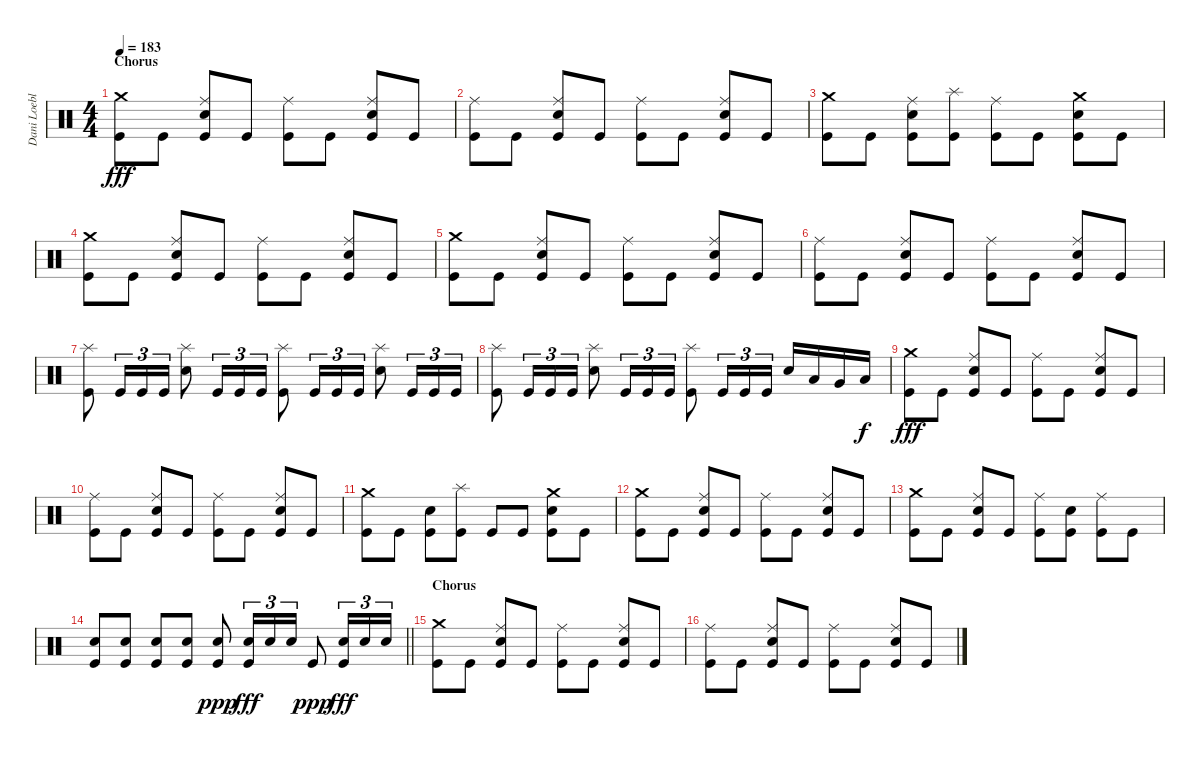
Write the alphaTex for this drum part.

\track ("Dani Loeble" "Dani Loebl") {instrument percussion}
\staff {score}
\articulation defaults
\ts (4 4)
\section ("" "Chorus")
\tempo 183
\clef neutral
\ks c
("Crash medium (hit)" "Kick (hit)").8{dy fff} "Kick (hit)".8 ("Ride (middle)" "Electric Snare (hit)" "Kick (hit)").8 "Kick (hit)".8 ("Ride (middle)" "Kick (hit)").8 "Kick (hit)".8 ("Ride (middle)" "Electric Snare (hit)" "Kick (hit)").8 "Kick (hit)".8 |
("Ride (middle)" "Kick (hit)").8 "Kick (hit)".8 ("Ride (middle)" "Electric Snare (hit)" "Kick (hit)").8 "Kick (hit)".8 ("Ride (middle)" "Kick (hit)").8 "Kick (hit)".8 ("Ride (middle)" "Electric Snare (hit)" "Kick (hit)").8 "Kick (hit)".8 |
("Crash medium (hit)" "Kick (hit)").8 "Kick (hit)".8 ("Ride (middle)" "Electric Snare (hit)" "Kick (hit)").8 ("Splash (hit)" "Kick (hit)").8 ("Ride (middle)" "Kick (hit)").8 "Kick (hit)".8 ("Crash medium (hit)" "Electric Snare (hit)" "Kick (hit)").8 "Kick (hit)".8 |
("Crash medium (hit)" "Kick (hit)").8 "Kick (hit)".8 ("Ride (middle)" "Electric Snare (hit)" "Kick (hit)").8 "Kick (hit)".8 ("Ride (middle)" "Kick (hit)").8 "Kick (hit)".8 ("Ride (middle)" "Electric Snare (hit)" "Kick (hit)").8 "Kick (hit)".8 |
("Crash medium (hit)" "Kick (hit)").8 "Kick (hit)".8 ("Ride (middle)" "Electric Snare (hit)" "Kick (hit)").8 "Kick (hit)".8 ("Ride (middle)" "Kick (hit)").8 "Kick (hit)".8 ("Ride (middle)" "Electric Snare (hit)" "Kick (hit)").8 "Kick (hit)".8 |
("Ride (middle)" "Kick (hit)").8 "Kick (hit)".8 ("Ride (middle)" "Electric Snare (hit)" "Kick (hit)").8 "Kick (hit)".8 ("Ride (middle)" "Kick (hit)").8 "Kick (hit)".8 ("Ride (middle)" "Electric Snare (hit)" "Kick (hit)").8 "Kick (hit)".8 |
("Splash (hit)" "Kick (hit)").8 "Kick (hit)".16{tu (3 2)} "Kick (hit)".16{tu (3 2)} "Kick (hit)".16{tu (3 2)} ("Splash (hit)" "Electric Snare (hit)").8 "Kick (hit)".16{tu (3 2)} "Kick (hit)".16{tu (3 2)} "Kick (hit)".16{tu (3 2)} ("Splash (hit)" "Kick (hit)").8 "Kick (hit)".16{tu (3 2)} "Kick (hit)".16{tu (3 2)} "Kick (hit)".16{tu (3 2)} ("Splash (hit)" "Electric Snare (hit)").8 "Kick (hit)".16{tu (3 2)} "Kick (hit)".16{tu (3 2)} "Kick (hit)".16{tu (3 2)} |
("Splash (hit)" "Kick (hit)").8 "Kick (hit)".16{tu (3 2)} "Kick (hit)".16{tu (3 2)} "Kick (hit)".16{tu (3 2)} ("Splash (hit)" "Electric Snare (hit)").8 "Kick (hit)".16{tu (3 2)} "Kick (hit)".16{tu (3 2)} "Kick (hit)".16{tu (3 2)} ("Splash (hit)" "Kick (hit)").8 "Kick (hit)".16{tu (3 2)} "Kick (hit)".16{tu (3 2)} "Kick (hit)".16{tu (3 2)} "Electric Snare (hit)".16 "Low Tom (hit)".16 "Very Low Tom (hit)".16 "Low Floor Tom (hit)".16{dy f} |
("Crash medium (hit)" "Kick (hit)").8{dy fff} "Kick (hit)".8 ("Ride (middle)" "Electric Snare (hit)" "Kick (hit)").8 "Kick (hit)".8 ("Ride (middle)" "Kick (hit)").8 "Kick (hit)".8 ("Ride (middle)" "Electric Snare (hit)" "Kick (hit)").8 "Kick (hit)".8 |
("Ride (middle)" "Kick (hit)").8 "Kick (hit)".8 ("Ride (middle)" "Electric Snare (hit)" "Kick (hit)").8 "Kick (hit)".8 ("Ride (middle)" "Kick (hit)").8 "Kick (hit)".8 ("Ride (middle)" "Electric Snare (hit)" "Kick (hit)").8 "Kick (hit)".8 |
("Crash medium (hit)" "Kick (hit)").8 "Kick (hit)".8 ("Electric Snare (hit)" "Kick (hit)").8 ("Splash (hit)" "Kick (hit)").8 "Kick (hit)".8 "Kick (hit)".8 ("Crash medium (hit)" "Electric Snare (hit)" "Kick (hit)").8 "Kick (hit)".8 |
("Crash medium (hit)" "Kick (hit)").8 "Kick (hit)".8 ("Ride (middle)" "Electric Snare (hit)" "Kick (hit)").8 "Kick (hit)".8 ("Ride (middle)" "Kick (hit)").8 "Kick (hit)".8 ("Ride (middle)" "Electric Snare (hit)" "Kick (hit)").8 "Kick (hit)".8 |
("Crash medium (hit)" "Kick (hit)").8 "Kick (hit)".8 ("Ride (middle)" "Electric Snare (hit)" "Kick (hit)").8 "Kick (hit)".8 ("Ride (middle)" "Kick (hit)").8 ("Electric Snare (hit)" "Kick (hit)").8 ("Ride (middle)" "Kick (hit)").8 "Kick (hit)".8 |
\barLineRight lightlight
("Electric Snare (hit)" "Kick (hit)").8 ("Electric Snare (hit)" "Kick (hit)").8 ("Electric Snare (hit)" "Kick (hit)").8 ("Electric Snare (hit)" "Kick (hit)").8 ("Electric Snare (hit)" "Kick (hit)").8{dy ppp} ("Electric Snare (hit)" "Kick (hit)").16{tu (3 2) dy fff} "Electric Snare (hit)".16{tu (3 2)} "Electric Snare (hit)".16{tu (3 2)} "Kick (hit)".8{dy ppp} ("Electric Snare (hit)" "Kick (hit)").16{tu (3 2) dy fff} "Electric Snare (hit)".16{tu (3 2)} "Electric Snare (hit)".16{tu (3 2)} |
\section ("" "Chorus")
("Crash medium (hit)" "Kick (hit)").8 "Kick (hit)".8 ("Ride (middle)" "Electric Snare (hit)" "Kick (hit)").8 "Kick (hit)".8 ("Ride (middle)" "Kick (hit)").8 "Kick (hit)".8 ("Ride (middle)" "Electric Snare (hit)" "Kick (hit)").8 "Kick (hit)".8 |
("Ride (middle)" "Kick (hit)").8 "Kick (hit)".8 ("Ride (middle)" "Electric Snare (hit)" "Kick (hit)").8 "Kick (hit)".8 ("Ride (middle)" "Kick (hit)").8 "Kick (hit)".8 ("Ride (middle)" "Electric Snare (hit)" "Kick (hit)").8 "Kick (hit)".8
